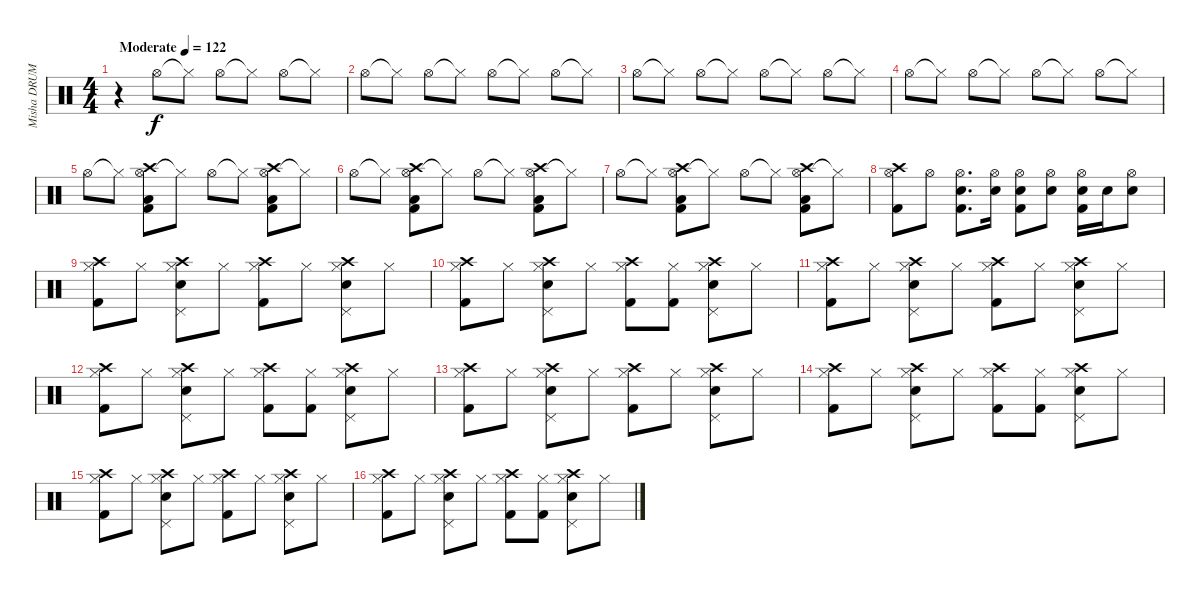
\track ("Misha DRUMS" "Misha DRUM") {instrument percussion}
\staff {score}
\articulation defaults
\ts (4 4)
\tempo (122 "Moderate")
\clef neutral
\ks c
r.4{dy f} "Hi-Hat (open)".8 "Hi-Hat (closed)"{t}.8 "Hi-Hat (open)".8 "Hi-Hat (closed)"{t}.8 "Hi-Hat (open)".8 "Hi-Hat (closed)"{t}.8 |
"Hi-Hat (open)".8 "Hi-Hat (closed)"{t}.8 "Hi-Hat (open)".8 "Hi-Hat (closed)"{t}.8 "Hi-Hat (open)".8 "Hi-Hat (closed)"{t}.8 "Hi-Hat (open)".8 "Hi-Hat (closed)"{t}.8 |
"Hi-Hat (open)".8 "Hi-Hat (closed)"{t}.8 "Hi-Hat (open)".8 "Hi-Hat (closed)"{t}.8 "Hi-Hat (open)".8 "Hi-Hat (closed)"{t}.8 "Hi-Hat (open)".8 "Hi-Hat (closed)"{t}.8 |
"Hi-Hat (open)".8 "Hi-Hat (closed)"{t}.8 "Hi-Hat (open)".8 "Hi-Hat (closed)"{t}.8 "Hi-Hat (open)".8 "Hi-Hat (closed)"{t}.8 "Hi-Hat (open)".8 "Hi-Hat (closed)"{t}.8 |
"Hi-Hat (open)".8 "Hi-Hat (closed)"{t}.8 ("Hi-Hat (open)" "Crash high (hit)" "Low Floor Tom (hit)" "Kick (hit) 2").8 "Hi-Hat (closed)"{t}.8 "Hi-Hat (open)".8 "Hi-Hat (closed)"{t}.8 ("Hi-Hat (open)" "Crash high (hit)" "Low Floor Tom (hit)" "Kick (hit) 2").8 "Hi-Hat (closed)"{t}.8 |
"Hi-Hat (open)".8 "Hi-Hat (closed)"{t}.8 ("Hi-Hat (open)" "Crash high (hit)" "Low Floor Tom (hit)" "Kick (hit) 2").8 "Hi-Hat (closed)"{t}.8 "Hi-Hat (open)".8 "Hi-Hat (closed)"{t}.8 ("Hi-Hat (open)" "Crash high (hit)" "Low Floor Tom (hit)" "Kick (hit) 2").8 "Hi-Hat (closed)"{t}.8 |
"Hi-Hat (open)".8 "Hi-Hat (closed)"{t}.8 ("Hi-Hat (open)" "Crash high (hit)" "Low Floor Tom (hit)" "Kick (hit) 2").8 "Hi-Hat (closed)"{t}.8 "Hi-Hat (open)".8 "Hi-Hat (closed)"{t}.8 ("Hi-Hat (open)" "Crash high (hit)" "Low Floor Tom (hit)" "Kick (hit) 2").8 "Hi-Hat (closed)"{t}.8 |
("Hi-Hat (open)" "Crash high (hit)" "Kick (hit) 2").8 "Hi-Hat (open)".8 ("Hi-Hat (open)" "Snare (hit) 2" "Kick (hit) 2").8{d} ("Hi-Hat (open)" "Snare (hit) 2").16 ("Hi-Hat (open)" "Snare (hit) 2" "Kick (hit) 2").8 ("Hi-Hat (open)" "Snare (hit) 2").8 ("Hi-Hat (open)" "Snare (hit) 2" "Kick (hit) 2").16 "Snare (hit) 2".16 ("Hi-Hat (open)" "Snare (hit) 2").8 |
("Hi-Hat (closed)" "Crash high (hit)" "Kick (hit) 2").8 "Hi-Hat (closed)".8 ("Hi-Hat (closed)" "Crash high (hit)" "Pedal Hi-Hat (hit)" "Snare (hit) 2").8 "Hi-Hat (closed)".8 ("Hi-Hat (closed)" "Crash high (hit)" "Kick (hit) 2").8 "Hi-Hat (closed)".8 ("Hi-Hat (closed)" "Crash high (hit)" "Pedal Hi-Hat (hit)" "Snare (hit) 2").8 "Hi-Hat (closed)".8 |
("Hi-Hat (closed)" "Crash high (hit)" "Kick (hit) 2").8 "Hi-Hat (closed)".8 ("Hi-Hat (closed)" "Crash high (hit)" "Pedal Hi-Hat (hit)" "Snare (hit) 2").8 "Hi-Hat (closed)".8 ("Hi-Hat (closed)" "Crash high (hit)" "Kick (hit) 2").8 ("Hi-Hat (closed)" "Kick (hit) 2").8 ("Hi-Hat (closed)" "Crash high (hit)" "Pedal Hi-Hat (hit)" "Snare (hit) 2").8 "Hi-Hat (closed)".8 |
("Hi-Hat (closed)" "Crash high (hit)" "Kick (hit) 2").8 "Hi-Hat (closed)".8 ("Hi-Hat (closed)" "Crash high (hit)" "Pedal Hi-Hat (hit)" "Snare (hit) 2").8 "Hi-Hat (closed)".8 ("Hi-Hat (closed)" "Crash high (hit)" "Kick (hit) 2").8 "Hi-Hat (closed)".8 ("Hi-Hat (closed)" "Crash high (hit)" "Pedal Hi-Hat (hit)" "Snare (hit) 2").8 "Hi-Hat (closed)".8 |
("Hi-Hat (closed)" "Crash high (hit)" "Kick (hit) 2").8 "Hi-Hat (closed)".8 ("Hi-Hat (closed)" "Crash high (hit)" "Pedal Hi-Hat (hit)" "Snare (hit) 2").8 "Hi-Hat (closed)".8 ("Hi-Hat (closed)" "Crash high (hit)" "Kick (hit) 2").8 ("Hi-Hat (closed)" "Kick (hit) 2").8 ("Hi-Hat (closed)" "Crash high (hit)" "Pedal Hi-Hat (hit)" "Snare (hit) 2").8 "Hi-Hat (closed)".8 |
("Hi-Hat (closed)" "Crash high (hit)" "Kick (hit) 2").8 "Hi-Hat (closed)".8 ("Hi-Hat (closed)" "Crash high (hit)" "Pedal Hi-Hat (hit)" "Snare (hit) 2").8 "Hi-Hat (closed)".8 ("Hi-Hat (closed)" "Crash high (hit)" "Kick (hit) 2").8 "Hi-Hat (closed)".8 ("Hi-Hat (closed)" "Crash high (hit)" "Pedal Hi-Hat (hit)" "Snare (hit) 2").8 "Hi-Hat (closed)".8 |
("Hi-Hat (closed)" "Crash high (hit)" "Kick (hit) 2").8 "Hi-Hat (closed)".8 ("Hi-Hat (closed)" "Crash high (hit)" "Pedal Hi-Hat (hit)" "Snare (hit) 2").8 "Hi-Hat (closed)".8 ("Hi-Hat (closed)" "Crash high (hit)" "Kick (hit) 2").8 ("Hi-Hat (closed)" "Kick (hit) 2").8 ("Hi-Hat (closed)" "Crash high (hit)" "Pedal Hi-Hat (hit)" "Snare (hit) 2").8 "Hi-Hat (closed)".8 |
("Hi-Hat (closed)" "Crash high (hit)" "Kick (hit) 2").8 "Hi-Hat (closed)".8 ("Hi-Hat (closed)" "Crash high (hit)" "Pedal Hi-Hat (hit)" "Snare (hit) 2").8 "Hi-Hat (closed)".8 ("Hi-Hat (closed)" "Crash high (hit)" "Kick (hit) 2").8 "Hi-Hat (closed)".8 ("Hi-Hat (closed)" "Crash high (hit)" "Pedal Hi-Hat (hit)" "Snare (hit) 2").8 "Hi-Hat (closed)".8 |
("Hi-Hat (closed)" "Crash high (hit)" "Kick (hit) 2").8 "Hi-Hat (closed)".8 ("Hi-Hat (closed)" "Crash high (hit)" "Pedal Hi-Hat (hit)" "Snare (hit) 2").8 "Hi-Hat (closed)".8 ("Hi-Hat (closed)" "Crash high (hit)" "Kick (hit) 2").8 ("Hi-Hat (closed)" "Kick (hit) 2").8 ("Hi-Hat (closed)" "Crash high (hit)" "Pedal Hi-Hat (hit)" "Snare (hit) 2").8 "Hi-Hat (closed)".8
